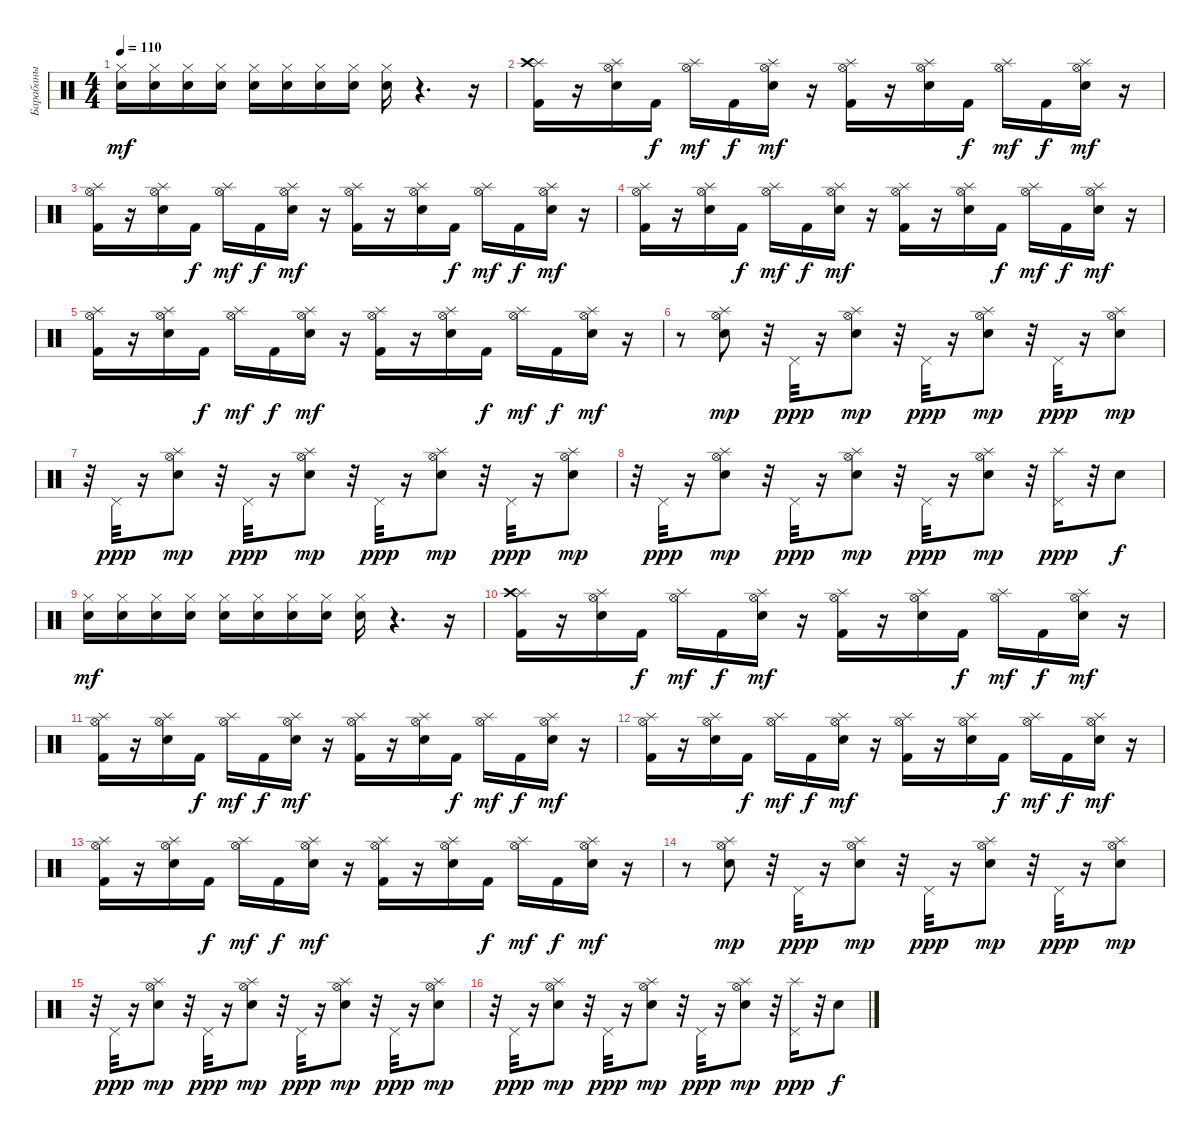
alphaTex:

\track ("Барабаны" "Барабаны") {instrument percussion}
\staff {score}
\articulation defaults
\ts (4 4)
\tempo 110
\clef neutral
\ks c
("Hi-Hat (closed)" "Electric Snare (hit)").16{dy mf} ("Hi-Hat (closed)" "Electric Snare (hit)").16 ("Hi-Hat (closed)" "Electric Snare (hit)").16 ("Hi-Hat (closed)" "Electric Snare (hit)").16 ("Hi-Hat (closed)" "Electric Snare (hit)").16 ("Hi-Hat (closed)" "Electric Snare (hit)").16 ("Hi-Hat (closed)" "Electric Snare (hit)").16 ("Hi-Hat (closed)" "Electric Snare (hit)").16 ("Hi-Hat (closed)" "Electric Snare (hit)").16 r.4{d} r.16 |
("Splash (hit)" "Crash high (hit)" "Kick (hit) 2").16 r.16 ("Hi-Hat (open)" "Splash (hit)" "Electric Snare (hit)").16 "Kick (hit) 2".16{dy f} ("Hi-Hat (open)" "Splash (hit)").16{dy mf} "Kick (hit) 2".16{dy f} ("Hi-Hat (open)" "Splash (hit)" "Electric Snare (hit)").16{dy mf} r.16 ("Hi-Hat (open)" "Splash (hit)" "Kick (hit) 2").16 r.16 ("Hi-Hat (open)" "Splash (hit)" "Electric Snare (hit)").16 "Kick (hit) 2".16{dy f} ("Hi-Hat (open)" "Splash (hit)").16{dy mf} "Kick (hit) 2".16{dy f} ("Hi-Hat (open)" "Splash (hit)" "Electric Snare (hit)").16{dy mf} r.16 |
("Hi-Hat (open)" "Splash (hit)" "Kick (hit) 2").16 r.16 ("Hi-Hat (open)" "Splash (hit)" "Electric Snare (hit)").16 "Kick (hit) 2".16{dy f} ("Hi-Hat (open)" "Splash (hit)").16{dy mf} "Kick (hit) 2".16{dy f} ("Hi-Hat (open)" "Splash (hit)" "Electric Snare (hit)").16{dy mf} r.16 ("Hi-Hat (open)" "Splash (hit)" "Kick (hit) 2").16 r.16 ("Hi-Hat (open)" "Splash (hit)" "Electric Snare (hit)").16 "Kick (hit) 2".16{dy f} ("Hi-Hat (open)" "Splash (hit)").16{dy mf} "Kick (hit) 2".16{dy f} ("Hi-Hat (open)" "Splash (hit)" "Electric Snare (hit)").16{dy mf} r.16 |
("Hi-Hat (open)" "Splash (hit)" "Kick (hit) 2").16 r.16 ("Hi-Hat (open)" "Splash (hit)" "Electric Snare (hit)").16 "Kick (hit) 2".16{dy f} ("Hi-Hat (open)" "Splash (hit)").16{dy mf} "Kick (hit) 2".16{dy f} ("Hi-Hat (open)" "Splash (hit)" "Electric Snare (hit)").16{dy mf} r.16 ("Hi-Hat (open)" "Splash (hit)" "Kick (hit) 2").16 r.16 ("Hi-Hat (open)" "Splash (hit)" "Electric Snare (hit)").16 "Kick (hit) 2".16{dy f} ("Hi-Hat (open)" "Splash (hit)").16{dy mf} "Kick (hit) 2".16{dy f} ("Hi-Hat (open)" "Splash (hit)" "Electric Snare (hit)").16{dy mf} r.16 |
("Hi-Hat (open)" "Splash (hit)" "Kick (hit) 2").16 r.16 ("Hi-Hat (open)" "Splash (hit)" "Electric Snare (hit)").16 "Kick (hit) 2".16{dy f} ("Hi-Hat (open)" "Splash (hit)").16{dy mf} "Kick (hit) 2".16{dy f} ("Hi-Hat (open)" "Splash (hit)" "Electric Snare (hit)").16{dy mf} r.16 ("Hi-Hat (open)" "Splash (hit)" "Kick (hit) 2").16 r.16 ("Hi-Hat (open)" "Splash (hit)" "Electric Snare (hit)").16 "Kick (hit) 2".16{dy f} ("Hi-Hat (open)" "Splash (hit)").16{dy mf} "Kick (hit) 2".16{dy f} ("Hi-Hat (open)" "Splash (hit)" "Electric Snare (hit)").16{dy mf} r.16 |
r.8 ("Splash (hit)" "Hi-Hat (open)" "Electric Snare (hit)").8{dy mp} r.32 "Pedal Hi-Hat (hit)".32{dy ppp} r.16 ("Splash (hit)" "Hi-Hat (open)" "Electric Snare (hit)").8{dy mp} r.32 "Pedal Hi-Hat (hit)".32{dy ppp} r.16 ("Splash (hit)" "Hi-Hat (open)" "Electric Snare (hit)").8{dy mp} r.32 "Pedal Hi-Hat (hit)".32{dy ppp} r.16 ("Splash (hit)" "Hi-Hat (open)" "Electric Snare (hit)").8{dy mp} |
r.32 "Pedal Hi-Hat (hit)".32{dy ppp} r.16 ("Splash (hit)" "Hi-Hat (open)" "Electric Snare (hit)").8{dy mp} r.32 "Pedal Hi-Hat (hit)".32{dy ppp} r.16 ("Splash (hit)" "Hi-Hat (open)" "Electric Snare (hit)").8{dy mp} r.32 "Pedal Hi-Hat (hit)".32{dy ppp} r.16 ("Splash (hit)" "Hi-Hat (open)" "Electric Snare (hit)").8{dy mp} r.32 "Pedal Hi-Hat (hit)".32{dy ppp} r.16 ("Splash (hit)" "Hi-Hat (open)" "Electric Snare (hit)").8{dy mp} |
r.32 "Pedal Hi-Hat (hit)".32{dy ppp} r.16 ("Splash (hit)" "Hi-Hat (open)" "Electric Snare (hit)").8{dy mp} r.32 "Pedal Hi-Hat (hit)".32{dy ppp} r.16 ("Splash (hit)" "Hi-Hat (open)" "Electric Snare (hit)").8{dy mp} r.32 "Pedal Hi-Hat (hit)".32{dy ppp} r.16 ("Splash (hit)" "Hi-Hat (open)" "Electric Snare (hit)").8{dy mp} r.32 ("Splash (hit)" "Pedal Hi-Hat (hit)").16{dy ppp} r.32 "Electric Snare (hit)".8{dy f} |
("Hi-Hat (closed)" "Electric Snare (hit)").16{dy mf} ("Hi-Hat (closed)" "Electric Snare (hit)").16 ("Hi-Hat (closed)" "Electric Snare (hit)").16 ("Hi-Hat (closed)" "Electric Snare (hit)").16 ("Hi-Hat (closed)" "Electric Snare (hit)").16 ("Hi-Hat (closed)" "Electric Snare (hit)").16 ("Hi-Hat (closed)" "Electric Snare (hit)").16 ("Hi-Hat (closed)" "Electric Snare (hit)").16 ("Hi-Hat (closed)" "Electric Snare (hit)").16 r.4{d} r.16 |
("Splash (hit)" "Crash high (hit)" "Kick (hit) 2").16 r.16 ("Hi-Hat (open)" "Splash (hit)" "Electric Snare (hit)").16 "Kick (hit) 2".16{dy f} ("Hi-Hat (open)" "Splash (hit)").16{dy mf} "Kick (hit) 2".16{dy f} ("Hi-Hat (open)" "Splash (hit)" "Electric Snare (hit)").16{dy mf} r.16 ("Hi-Hat (open)" "Splash (hit)" "Kick (hit) 2").16 r.16 ("Hi-Hat (open)" "Splash (hit)" "Electric Snare (hit)").16 "Kick (hit) 2".16{dy f} ("Hi-Hat (open)" "Splash (hit)").16{dy mf} "Kick (hit) 2".16{dy f} ("Hi-Hat (open)" "Splash (hit)" "Electric Snare (hit)").16{dy mf} r.16 |
("Hi-Hat (open)" "Splash (hit)" "Kick (hit) 2").16 r.16 ("Hi-Hat (open)" "Splash (hit)" "Electric Snare (hit)").16 "Kick (hit) 2".16{dy f} ("Hi-Hat (open)" "Splash (hit)").16{dy mf} "Kick (hit) 2".16{dy f} ("Hi-Hat (open)" "Splash (hit)" "Electric Snare (hit)").16{dy mf} r.16 ("Hi-Hat (open)" "Splash (hit)" "Kick (hit) 2").16 r.16 ("Hi-Hat (open)" "Splash (hit)" "Electric Snare (hit)").16 "Kick (hit) 2".16{dy f} ("Hi-Hat (open)" "Splash (hit)").16{dy mf} "Kick (hit) 2".16{dy f} ("Hi-Hat (open)" "Splash (hit)" "Electric Snare (hit)").16{dy mf} r.16 |
("Hi-Hat (open)" "Splash (hit)" "Kick (hit) 2").16 r.16 ("Hi-Hat (open)" "Splash (hit)" "Electric Snare (hit)").16 "Kick (hit) 2".16{dy f} ("Hi-Hat (open)" "Splash (hit)").16{dy mf} "Kick (hit) 2".16{dy f} ("Hi-Hat (open)" "Splash (hit)" "Electric Snare (hit)").16{dy mf} r.16 ("Hi-Hat (open)" "Splash (hit)" "Kick (hit) 2").16 r.16 ("Hi-Hat (open)" "Splash (hit)" "Electric Snare (hit)").16 "Kick (hit) 2".16{dy f} ("Hi-Hat (open)" "Splash (hit)").16{dy mf} "Kick (hit) 2".16{dy f} ("Hi-Hat (open)" "Splash (hit)" "Electric Snare (hit)").16{dy mf} r.16 |
("Hi-Hat (open)" "Splash (hit)" "Kick (hit) 2").16 r.16 ("Hi-Hat (open)" "Splash (hit)" "Electric Snare (hit)").16 "Kick (hit) 2".16{dy f} ("Hi-Hat (open)" "Splash (hit)").16{dy mf} "Kick (hit) 2".16{dy f} ("Hi-Hat (open)" "Splash (hit)" "Electric Snare (hit)").16{dy mf} r.16 ("Hi-Hat (open)" "Splash (hit)" "Kick (hit) 2").16 r.16 ("Hi-Hat (open)" "Splash (hit)" "Electric Snare (hit)").16 "Kick (hit) 2".16{dy f} ("Hi-Hat (open)" "Splash (hit)").16{dy mf} "Kick (hit) 2".16{dy f} ("Hi-Hat (open)" "Splash (hit)" "Electric Snare (hit)").16{dy mf} r.16 |
r.8 ("Splash (hit)" "Hi-Hat (open)" "Electric Snare (hit)").8{dy mp} r.32 "Pedal Hi-Hat (hit)".32{dy ppp} r.16 ("Splash (hit)" "Hi-Hat (open)" "Electric Snare (hit)").8{dy mp} r.32 "Pedal Hi-Hat (hit)".32{dy ppp} r.16 ("Splash (hit)" "Hi-Hat (open)" "Electric Snare (hit)").8{dy mp} r.32 "Pedal Hi-Hat (hit)".32{dy ppp} r.16 ("Splash (hit)" "Hi-Hat (open)" "Electric Snare (hit)").8{dy mp} |
r.32 "Pedal Hi-Hat (hit)".32{dy ppp} r.16 ("Splash (hit)" "Hi-Hat (open)" "Electric Snare (hit)").8{dy mp} r.32 "Pedal Hi-Hat (hit)".32{dy ppp} r.16 ("Splash (hit)" "Hi-Hat (open)" "Electric Snare (hit)").8{dy mp} r.32 "Pedal Hi-Hat (hit)".32{dy ppp} r.16 ("Splash (hit)" "Hi-Hat (open)" "Electric Snare (hit)").8{dy mp} r.32 "Pedal Hi-Hat (hit)".32{dy ppp} r.16 ("Splash (hit)" "Hi-Hat (open)" "Electric Snare (hit)").8{dy mp} |
r.32 "Pedal Hi-Hat (hit)".32{dy ppp} r.16 ("Splash (hit)" "Hi-Hat (open)" "Electric Snare (hit)").8{dy mp} r.32 "Pedal Hi-Hat (hit)".32{dy ppp} r.16 ("Splash (hit)" "Hi-Hat (open)" "Electric Snare (hit)").8{dy mp} r.32 "Pedal Hi-Hat (hit)".32{dy ppp} r.16 ("Splash (hit)" "Hi-Hat (open)" "Electric Snare (hit)").8{dy mp} r.32 ("Splash (hit)" "Pedal Hi-Hat (hit)").16{dy ppp} r.32 "Electric Snare (hit)".8{dy f}
